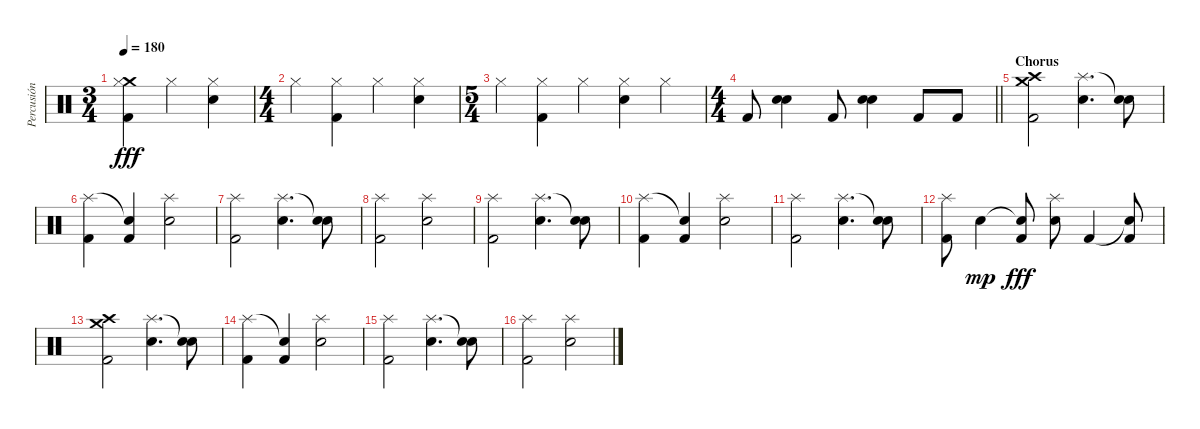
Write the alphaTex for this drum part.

\track ("Percusión" "Percusión") {instrument percussion}
\staff {score}
\articulation defaults
\ts (3 4)
\tempo 180
\clef neutral
\ks c
("Crash medium (hit)" "Hi-Hat (closed)" "Kick (hit) 2").4{dy fff} "Hi-Hat (closed)".4 ("Hi-Hat (closed)" "Electric Snare (hit)").4 |
\ts (4 4)
"Hi-Hat (closed)".4 ("Hi-Hat (closed)" "Kick (hit) 2").4 "Hi-Hat (closed)".4 ("Hi-Hat (closed)" "Electric Snare (hit)").4 |
\ts (5 4)
"Hi-Hat (closed)".4 ("Hi-Hat (closed)" "Kick (hit) 2").4 "Hi-Hat (closed)".4 ("Hi-Hat (closed)" "Electric Snare (hit)").4 "Hi-Hat (closed)".4 |
\ts (4 4)
\barLineRight lightlight "Kick (hit) 2".8
("Electric Snare (hit)" "Snare (hit) 2").4 "Kick (hit) 2".8 ("Electric Snare (hit)" "Snare (hit) 2").4 "Kick (hit) 2".8 "Kick (hit) 2".8 |
\section ("" "Chorus")
("Crash medium (hit)" "Crash high (hit)" "Kick (hit) 2").2 ("Splash (hit)" "Electric Snare (hit)").4{d} ("Snare (hit)"{t} "Electric Snare (hit)").8 |
("Splash (hit)" "Kick (hit) 2").4 ("Snare (hit)"{t} "Kick (hit) 2").4 ("Splash (hit)" "Electric Snare (hit)").2 |
("Splash (hit)" "Kick (hit) 2").2 ("Splash (hit)" "Electric Snare (hit)").4{d} ("Snare (hit)"{t} "Electric Snare (hit)").8 |
("Splash (hit)" "Kick (hit) 2").2 ("Splash (hit)" "Electric Snare (hit)").2 |
("Splash (hit)" "Kick (hit) 2").2 ("Splash (hit)" "Electric Snare (hit)").4{d} ("Snare (hit)"{t} "Electric Snare (hit)").8 |
("Splash (hit)" "Kick (hit) 2").4 ("Snare (hit)"{t} "Kick (hit) 2").4 ("Splash (hit)" "Electric Snare (hit)").2 |
("Splash (hit)" "Kick (hit) 2").2 ("Splash (hit)" "Electric Snare (hit)").4{d} ("Snare (hit)"{t} "Electric Snare (hit)").8 |
("Splash (hit)" "Kick (hit) 2").8 "Electric Snare (hit)".4{dy mp} ("Snare (hit)"{t} "Kick (hit) 2").8{dy fff} ("Splash (hit)" "Electric Snare (hit)").8 "Kick (hit) 2".4 ("Snare (hit)"{t} "Kick (hit) 2").8 |
("Crash medium (hit)" "Crash high (hit)" "Kick (hit) 2").2 ("Splash (hit)" "Electric Snare (hit)").4{d} ("Snare (hit)"{t} "Electric Snare (hit)").8 |
("Splash (hit)" "Kick (hit) 2").4 ("Snare (hit)"{t} "Kick (hit) 2").4 ("Splash (hit)" "Electric Snare (hit)").2 |
("Splash (hit)" "Kick (hit) 2").2 ("Splash (hit)" "Electric Snare (hit)").4{d} ("Snare (hit)"{t} "Electric Snare (hit)").8 |
("Splash (hit)" "Kick (hit) 2").2 ("Splash (hit)" "Electric Snare (hit)").2
